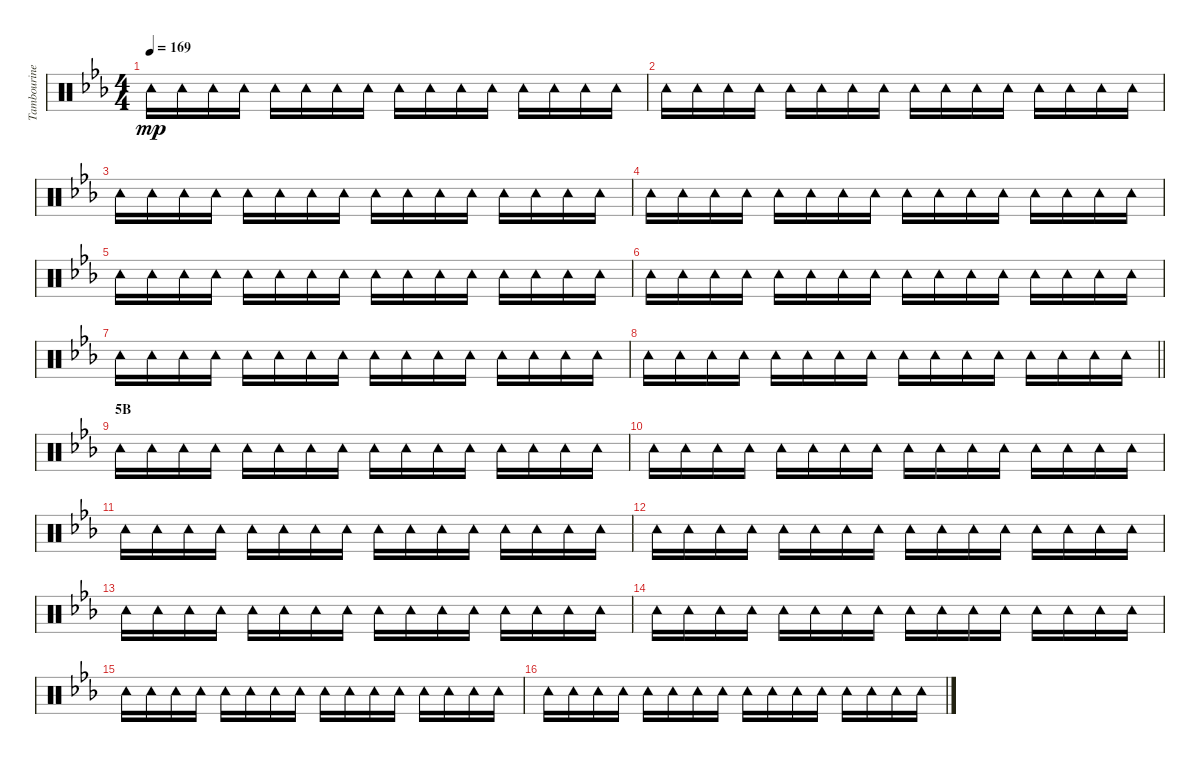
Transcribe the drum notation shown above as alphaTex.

\track ("Tambourine" "Tambourine") {instrument percussion}
\staff {score}
\articulation defaults
\ts (4 4)
\tempo 169
\clef neutral
\ks eb "Tambourine (hit)".16{dy mp} "Tambourine (hit)".16 "Tambourine (hit)".16 "Tambourine (hit)".16 "Tambourine (hit)".16 "Tambourine (hit)".16 "Tambourine (hit)".16 "Tambourine (hit)".16 "Tambourine (hit)".16 "Tambourine (hit)".16 "Tambourine (hit)".16 "Tambourine (hit)".16 "Tambourine (hit)".16 "Tambourine (hit)".16 "Tambourine (hit)".16 "Tambourine (hit)".16
|
"Tambourine (hit)".16 "Tambourine (hit)".16 "Tambourine (hit)".16 "Tambourine (hit)".16 "Tambourine (hit)".16 "Tambourine (hit)".16 "Tambourine (hit)".16 "Tambourine (hit)".16 "Tambourine (hit)".16 "Tambourine (hit)".16 "Tambourine (hit)".16 "Tambourine (hit)".16 "Tambourine (hit)".16 "Tambourine (hit)".16 "Tambourine (hit)".16 "Tambourine (hit)".16 |
"Tambourine (hit)".16 "Tambourine (hit)".16 "Tambourine (hit)".16 "Tambourine (hit)".16 "Tambourine (hit)".16 "Tambourine (hit)".16 "Tambourine (hit)".16 "Tambourine (hit)".16 "Tambourine (hit)".16 "Tambourine (hit)".16 "Tambourine (hit)".16 "Tambourine (hit)".16 "Tambourine (hit)".16 "Tambourine (hit)".16 "Tambourine (hit)".16 "Tambourine (hit)".16 |
"Tambourine (hit)".16 "Tambourine (hit)".16 "Tambourine (hit)".16 "Tambourine (hit)".16 "Tambourine (hit)".16 "Tambourine (hit)".16 "Tambourine (hit)".16 "Tambourine (hit)".16 "Tambourine (hit)".16 "Tambourine (hit)".16 "Tambourine (hit)".16 "Tambourine (hit)".16 "Tambourine (hit)".16 "Tambourine (hit)".16 "Tambourine (hit)".16 "Tambourine (hit)".16 |
"Tambourine (hit)".16 "Tambourine (hit)".16 "Tambourine (hit)".16 "Tambourine (hit)".16 "Tambourine (hit)".16 "Tambourine (hit)".16 "Tambourine (hit)".16 "Tambourine (hit)".16 "Tambourine (hit)".16 "Tambourine (hit)".16 "Tambourine (hit)".16 "Tambourine (hit)".16 "Tambourine (hit)".16 "Tambourine (hit)".16 "Tambourine (hit)".16 "Tambourine (hit)".16 |
"Tambourine (hit)".16 "Tambourine (hit)".16 "Tambourine (hit)".16 "Tambourine (hit)".16 "Tambourine (hit)".16 "Tambourine (hit)".16 "Tambourine (hit)".16 "Tambourine (hit)".16 "Tambourine (hit)".16 "Tambourine (hit)".16 "Tambourine (hit)".16 "Tambourine (hit)".16 "Tambourine (hit)".16 "Tambourine (hit)".16 "Tambourine (hit)".16 "Tambourine (hit)".16 |
"Tambourine (hit)".16 "Tambourine (hit)".16 "Tambourine (hit)".16 "Tambourine (hit)".16 "Tambourine (hit)".16 "Tambourine (hit)".16 "Tambourine (hit)".16 "Tambourine (hit)".16 "Tambourine (hit)".16 "Tambourine (hit)".16 "Tambourine (hit)".16 "Tambourine (hit)".16 "Tambourine (hit)".16 "Tambourine (hit)".16 "Tambourine (hit)".16 "Tambourine (hit)".16 |
\barLineRight lightlight "Tambourine (hit)".16 "Tambourine (hit)".16 "Tambourine (hit)".16 "Tambourine (hit)".16 "Tambourine (hit)".16 "Tambourine (hit)".16 "Tambourine (hit)".16 "Tambourine (hit)".16 "Tambourine (hit)".16 "Tambourine (hit)".16 "Tambourine (hit)".16 "Tambourine (hit)".16 "Tambourine (hit)".16 "Tambourine (hit)".16 "Tambourine (hit)".16 "Tambourine (hit)".16
|
\section ("" "5B")
"Tambourine (hit)".16 "Tambourine (hit)".16 "Tambourine (hit)".16 "Tambourine (hit)".16 "Tambourine (hit)".16 "Tambourine (hit)".16 "Tambourine (hit)".16 "Tambourine (hit)".16 "Tambourine (hit)".16 "Tambourine (hit)".16 "Tambourine (hit)".16 "Tambourine (hit)".16 "Tambourine (hit)".16 "Tambourine (hit)".16 "Tambourine (hit)".16 "Tambourine (hit)".16 |
"Tambourine (hit)".16 "Tambourine (hit)".16 "Tambourine (hit)".16 "Tambourine (hit)".16 "Tambourine (hit)".16 "Tambourine (hit)".16 "Tambourine (hit)".16 "Tambourine (hit)".16 "Tambourine (hit)".16 "Tambourine (hit)".16 "Tambourine (hit)".16 "Tambourine (hit)".16 "Tambourine (hit)".16 "Tambourine (hit)".16 "Tambourine (hit)".16 "Tambourine (hit)".16 |
"Tambourine (hit)".16 "Tambourine (hit)".16 "Tambourine (hit)".16 "Tambourine (hit)".16 "Tambourine (hit)".16 "Tambourine (hit)".16 "Tambourine (hit)".16 "Tambourine (hit)".16 "Tambourine (hit)".16 "Tambourine (hit)".16 "Tambourine (hit)".16 "Tambourine (hit)".16 "Tambourine (hit)".16 "Tambourine (hit)".16 "Tambourine (hit)".16 "Tambourine (hit)".16 |
"Tambourine (hit)".16 "Tambourine (hit)".16 "Tambourine (hit)".16 "Tambourine (hit)".16 "Tambourine (hit)".16 "Tambourine (hit)".16 "Tambourine (hit)".16 "Tambourine (hit)".16 "Tambourine (hit)".16 "Tambourine (hit)".16 "Tambourine (hit)".16 "Tambourine (hit)".16 "Tambourine (hit)".16 "Tambourine (hit)".16 "Tambourine (hit)".16 "Tambourine (hit)".16 |
"Tambourine (hit)".16 "Tambourine (hit)".16 "Tambourine (hit)".16 "Tambourine (hit)".16 "Tambourine (hit)".16 "Tambourine (hit)".16 "Tambourine (hit)".16 "Tambourine (hit)".16 "Tambourine (hit)".16 "Tambourine (hit)".16 "Tambourine (hit)".16 "Tambourine (hit)".16 "Tambourine (hit)".16 "Tambourine (hit)".16 "Tambourine (hit)".16 "Tambourine (hit)".16 |
"Tambourine (hit)".16 "Tambourine (hit)".16 "Tambourine (hit)".16 "Tambourine (hit)".16 "Tambourine (hit)".16 "Tambourine (hit)".16 "Tambourine (hit)".16 "Tambourine (hit)".16 "Tambourine (hit)".16 "Tambourine (hit)".16 "Tambourine (hit)".16 "Tambourine (hit)".16 "Tambourine (hit)".16 "Tambourine (hit)".16 "Tambourine (hit)".16 "Tambourine (hit)".16 |
"Tambourine (hit)".16 "Tambourine (hit)".16 "Tambourine (hit)".16 "Tambourine (hit)".16 "Tambourine (hit)".16 "Tambourine (hit)".16 "Tambourine (hit)".16 "Tambourine (hit)".16 "Tambourine (hit)".16 "Tambourine (hit)".16 "Tambourine (hit)".16 "Tambourine (hit)".16 "Tambourine (hit)".16 "Tambourine (hit)".16 "Tambourine (hit)".16 "Tambourine (hit)".16 |
"Tambourine (hit)".16 "Tambourine (hit)".16 "Tambourine (hit)".16 "Tambourine (hit)".16 "Tambourine (hit)".16 "Tambourine (hit)".16 "Tambourine (hit)".16 "Tambourine (hit)".16 "Tambourine (hit)".16 "Tambourine (hit)".16 "Tambourine (hit)".16 "Tambourine (hit)".16 "Tambourine (hit)".16 "Tambourine (hit)".16 "Tambourine (hit)".16 "Tambourine (hit)".16
